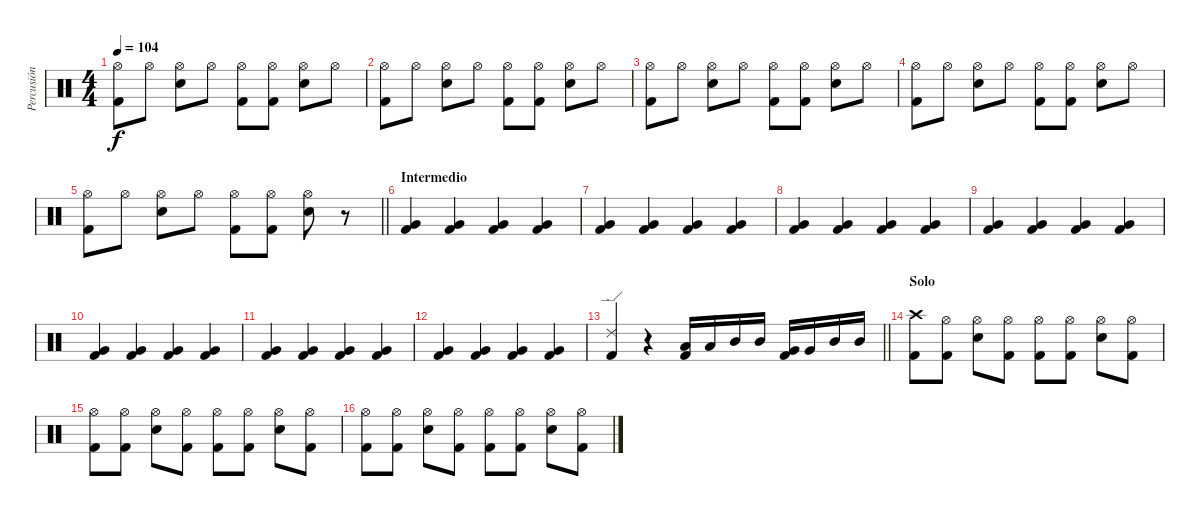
\track ("Percusión" "Percusión") {instrument percussion}
\staff {score}
\articulation defaults
\ts (4 4)
\tempo 104
\clef neutral
\ks c
("Hi-Hat (open)" "Kick (hit) 2").8{dy f} "Hi-Hat (open)".8 ("Hi-Hat (open)" "Snare (hit) 2").8 "Hi-Hat (open)".8 ("Hi-Hat (open)" "Kick (hit) 2").8 ("Hi-Hat (open)" "Kick (hit) 2").8 ("Hi-Hat (open)" "Snare (hit) 2").8 "Hi-Hat (open)".8 |
("Hi-Hat (open)" "Kick (hit) 2").8 "Hi-Hat (open)".8 ("Hi-Hat (open)" "Snare (hit) 2").8 "Hi-Hat (open)".8 ("Hi-Hat (open)" "Kick (hit) 2").8 ("Hi-Hat (open)" "Kick (hit) 2").8 ("Hi-Hat (open)" "Snare (hit) 2").8 "Hi-Hat (open)".8 |
("Hi-Hat (open)" "Kick (hit) 2").8 "Hi-Hat (open)".8 ("Hi-Hat (open)" "Snare (hit) 2").8 "Hi-Hat (open)".8 ("Hi-Hat (open)" "Kick (hit) 2").8 ("Hi-Hat (open)" "Kick (hit) 2").8 ("Hi-Hat (open)" "Snare (hit) 2").8 "Hi-Hat (open)".8 |
("Hi-Hat (open)" "Kick (hit) 2").8 "Hi-Hat (open)".8 ("Hi-Hat (open)" "Snare (hit) 2").8 "Hi-Hat (open)".8 ("Hi-Hat (open)" "Kick (hit) 2").8 ("Hi-Hat (open)" "Kick (hit) 2").8 ("Hi-Hat (open)" "Snare (hit) 2").8 "Hi-Hat (open)".8 |
\barLineRight lightlight
("Hi-Hat (open)" "Kick (hit) 2").8 "Hi-Hat (open)".8 ("Hi-Hat (open)" "Snare (hit) 2").8 "Hi-Hat (open)".8 ("Hi-Hat (open)" "Kick (hit) 2").8 ("Hi-Hat (open)" "Kick (hit) 2").8 ("Hi-Hat (open)" "Snare (hit) 2").8 r.8 |
\section ("" "Intermedio")
("Very Low Tom (hit)" "Kick (hit) 2").4 ("Very Low Tom (hit)" "Kick (hit) 2").4 ("Very Low Tom (hit)" "Kick (hit) 2").4 ("Very Low Tom (hit)" "Kick (hit) 2").4 |
("Very Low Tom (hit)" "Kick (hit) 2").4 ("Very Low Tom (hit)" "Kick (hit) 2").4 ("Very Low Tom (hit)" "Kick (hit) 2").4 ("Very Low Tom (hit)" "Kick (hit) 2").4 |
("Very Low Tom (hit)" "Kick (hit) 2").4 ("Very Low Tom (hit)" "Kick (hit) 2").4 ("Very Low Tom (hit)" "Kick (hit) 2").4 ("Very Low Tom (hit)" "Kick (hit) 2").4 |
("Very Low Tom (hit)" "Kick (hit) 2").4 ("Very Low Tom (hit)" "Kick (hit) 2").4 ("Very Low Tom (hit)" "Kick (hit) 2").4 ("Very Low Tom (hit)" "Kick (hit) 2").4 |
("Very Low Tom (hit)" "Kick (hit) 2").4 ("Very Low Tom (hit)" "Kick (hit) 2").4 ("Very Low Tom (hit)" "Kick (hit) 2").4 ("Very Low Tom (hit)" "Kick (hit) 2").4 |
("Very Low Tom (hit)" "Kick (hit) 2").4 ("Very Low Tom (hit)" "Kick (hit) 2").4 ("Very Low Tom (hit)" "Kick (hit) 2").4 ("Very Low Tom (hit)" "Kick (hit) 2").4 |
("Very Low Tom (hit)" "Kick (hit) 2").4 ("Very Low Tom (hit)" "Kick (hit) 2").4 ("Very Low Tom (hit)" "Kick (hit) 2").4 ("Very Low Tom (hit)" "Kick (hit) 2").4 |
\barLineRight lightlight
("Ride (edge) 2" "Kick (hit) 2").4 r.4 ("Low Tom (hit)" "Kick (hit) 2").16 "Low Tom (hit)".16 "Mid Tom (hit)".16 "Mid Tom (hit)".16 ("Very Low Tom (hit)" "Kick (hit) 2").16 "Very Low Tom (hit)".16 "Mid Tom (hit)".16 "Mid Tom (hit)".16 |
\section ("" "Solo")
("Crash high (hit)" "Kick (hit) 2").8 ("Hi-Hat (open)" "Kick (hit) 2").8 ("Hi-Hat (open)" "Snare (hit) 2").8 ("Hi-Hat (open)" "Kick (hit) 2").8 ("Hi-Hat (open)" "Kick (hit) 2").8 ("Hi-Hat (open)" "Kick (hit) 2").8 ("Hi-Hat (open)" "Snare (hit) 2").8 ("Hi-Hat (open)" "Kick (hit) 2").8 |
("Hi-Hat (open)" "Kick (hit) 2").8 ("Hi-Hat (open)" "Kick (hit) 2").8 ("Hi-Hat (open)" "Snare (hit) 2").8 ("Hi-Hat (open)" "Kick (hit) 2").8 ("Hi-Hat (open)" "Kick (hit) 2").8 ("Hi-Hat (open)" "Kick (hit) 2").8 ("Hi-Hat (open)" "Snare (hit) 2").8 ("Hi-Hat (open)" "Kick (hit) 2").8 |
("Hi-Hat (open)" "Kick (hit) 2").8 ("Hi-Hat (open)" "Kick (hit) 2").8 ("Hi-Hat (open)" "Snare (hit) 2").8 ("Hi-Hat (open)" "Kick (hit) 2").8 ("Hi-Hat (open)" "Kick (hit) 2").8 ("Hi-Hat (open)" "Kick (hit) 2").8 ("Hi-Hat (open)" "Snare (hit) 2").8 ("Hi-Hat (open)" "Kick (hit) 2").8
